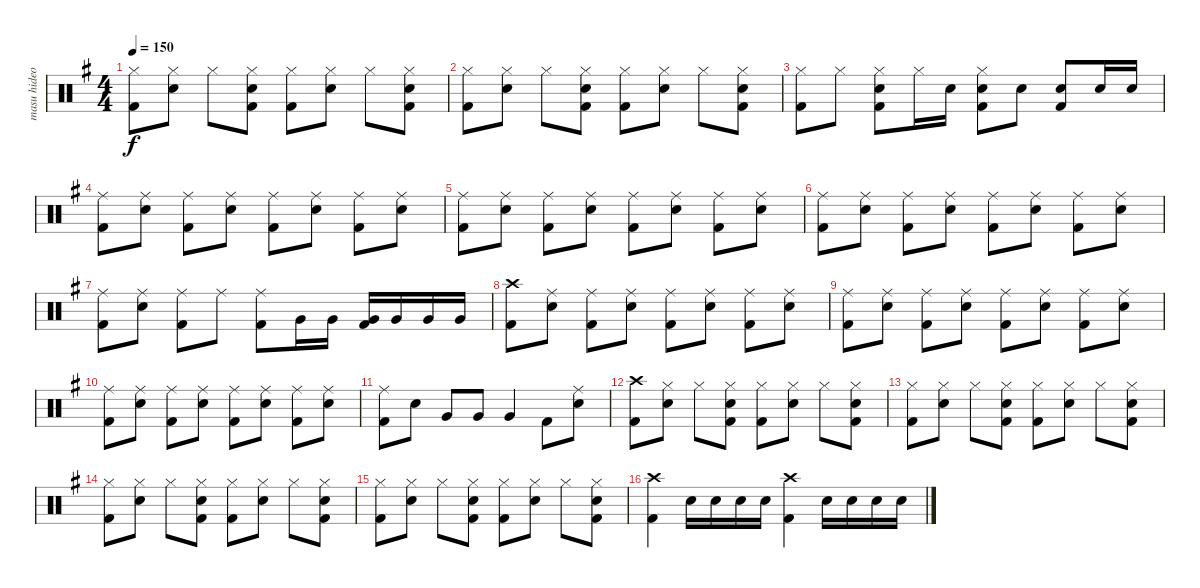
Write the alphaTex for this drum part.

\track ("masu hideo - drum" "masu hideo") {instrument percussion}
\staff {score}
\articulation defaults
\ts (4 4)
\tempo 150
\clef neutral
\ks g
("Hi-Hat (closed)" "Kick (hit) 2").8{dy f} ("Hi-Hat (closed)" "Electric Snare (hit)").8 "Hi-Hat (closed)".8 ("Hi-Hat (closed)" "Electric Snare (hit)" "Kick (hit) 2").8 ("Hi-Hat (closed)" "Kick (hit) 2").8 ("Hi-Hat (closed)" "Electric Snare (hit)").8 "Hi-Hat (closed)".8 ("Hi-Hat (closed)" "Electric Snare (hit)" "Kick (hit) 2").8 |
("Hi-Hat (closed)" "Kick (hit) 2").8 ("Hi-Hat (closed)" "Electric Snare (hit)").8 "Hi-Hat (closed)".8 ("Hi-Hat (closed)" "Electric Snare (hit)" "Kick (hit) 2").8 ("Hi-Hat (closed)" "Kick (hit) 2").8 ("Hi-Hat (closed)" "Electric Snare (hit)").8 "Hi-Hat (closed)".8 ("Hi-Hat (closed)" "Electric Snare (hit)" "Kick (hit) 2").8 |
("Hi-Hat (closed)" "Kick (hit) 2").8 "Hi-Hat (closed)".8 ("Hi-Hat (closed)" "Electric Snare (hit)" "Kick (hit) 2").8 "Hi-Hat (closed)".16 "Electric Snare (hit)".16 ("Hi-Hat (closed)" "Electric Snare (hit)" "Kick (hit) 2").8 "Electric Snare (hit)".8 ("Electric Snare (hit)" "Kick (hit) 2").8 "Electric Snare (hit)".16 "Electric Snare (hit)".16 |
("Ride (middle)" "Kick (hit) 2").8 ("Ride (middle)" "Electric Snare (hit)").8 ("Ride (middle)" "Kick (hit) 2").8 ("Ride (middle)" "Electric Snare (hit)").8 ("Ride (middle)" "Kick (hit) 2").8 ("Ride (middle)" "Electric Snare (hit)").8 ("Ride (middle)" "Kick (hit) 2").8 ("Ride (middle)" "Electric Snare (hit)").8 |
("Ride (middle)" "Kick (hit) 2").8 ("Ride (middle)" "Electric Snare (hit)").8 ("Ride (middle)" "Kick (hit) 2").8 ("Ride (middle)" "Electric Snare (hit)").8 ("Ride (middle)" "Kick (hit) 2").8 ("Ride (middle)" "Electric Snare (hit)").8 ("Ride (middle)" "Kick (hit) 2").8 ("Ride (middle)" "Electric Snare (hit)").8 |
("Ride (middle)" "Kick (hit) 2").8 ("Ride (middle)" "Electric Snare (hit)").8 ("Ride (middle)" "Kick (hit) 2").8 ("Ride (middle)" "Electric Snare (hit)").8 ("Ride (middle)" "Kick (hit) 2").8 ("Ride (middle)" "Electric Snare (hit)").8 ("Ride (middle)" "Kick (hit) 2").8 ("Ride (middle)" "Electric Snare (hit)").8 |
("Ride (middle)" "Kick (hit) 2").8 ("Ride (middle)" "Electric Snare (hit)").8 ("Ride (middle)" "Kick (hit) 2").8 "Ride (middle)".8 ("Ride (middle)" "Kick (hit) 2").8 "Very Low Tom (hit)".16 "Very Low Tom (hit)".16 ("Very Low Tom (hit)" "Kick (hit) 2").16 "Very Low Tom (hit)".16 "Very Low Tom (hit)".16 "Very Low Tom (hit)".16 |
("Crash high (hit)" "Kick (hit) 2").8 ("Ride (middle)" "Electric Snare (hit)").8 ("Ride (middle)" "Kick (hit) 2").8 ("Ride (middle)" "Electric Snare (hit)").8 ("Ride (middle)" "Kick (hit) 2").8 ("Ride (middle)" "Electric Snare (hit)").8 ("Ride (middle)" "Kick (hit) 2").8 ("Ride (middle)" "Electric Snare (hit)").8 |
("Ride (middle)" "Kick (hit) 2").8 ("Ride (middle)" "Electric Snare (hit)").8 ("Ride (middle)" "Kick (hit) 2").8 ("Ride (middle)" "Electric Snare (hit)").8 ("Ride (middle)" "Kick (hit) 2").8 ("Ride (middle)" "Electric Snare (hit)").8 ("Ride (middle)" "Kick (hit) 2").8 ("Ride (middle)" "Electric Snare (hit)").8 |
("Ride (middle)" "Kick (hit) 2").8 ("Ride (middle)" "Electric Snare (hit)").8 ("Ride (middle)" "Kick (hit) 2").8 ("Ride (middle)" "Electric Snare (hit)").8 ("Ride (middle)" "Kick (hit) 2").8 ("Ride (middle)" "Electric Snare (hit)").8 ("Ride (middle)" "Kick (hit) 2").8 ("Ride (middle)" "Electric Snare (hit)").8 |
("Ride (middle)" "Kick (hit) 2").8 "Electric Snare (hit)".8 "Very Low Tom (hit)".8 "Very Low Tom (hit)".8 "Very Low Tom (hit)".4 "Kick (hit) 2".8 ("Ride (middle)" "Electric Snare (hit)").8 |
("Crash high (hit)" "Kick (hit) 2").8 ("Hi-Hat (closed)" "Electric Snare (hit)").8 "Hi-Hat (closed)".8 ("Hi-Hat (closed)" "Electric Snare (hit)" "Kick (hit) 2").8 ("Hi-Hat (closed)" "Kick (hit) 2").8 ("Hi-Hat (closed)" "Electric Snare (hit)").8 "Hi-Hat (closed)".8 ("Hi-Hat (closed)" "Electric Snare (hit)" "Kick (hit) 2").8 |
("Hi-Hat (closed)" "Kick (hit) 2").8 ("Hi-Hat (closed)" "Electric Snare (hit)").8 "Hi-Hat (closed)".8 ("Hi-Hat (closed)" "Electric Snare (hit)" "Kick (hit) 2").8 ("Hi-Hat (closed)" "Kick (hit) 2").8 ("Hi-Hat (closed)" "Electric Snare (hit)").8 "Hi-Hat (closed)".8 ("Hi-Hat (closed)" "Electric Snare (hit)" "Kick (hit) 2").8 |
("Hi-Hat (closed)" "Kick (hit) 2").8 ("Hi-Hat (closed)" "Electric Snare (hit)").8 "Hi-Hat (closed)".8 ("Hi-Hat (closed)" "Electric Snare (hit)" "Kick (hit) 2").8 ("Hi-Hat (closed)" "Kick (hit) 2").8 ("Hi-Hat (closed)" "Electric Snare (hit)").8 "Hi-Hat (closed)".8 ("Hi-Hat (closed)" "Electric Snare (hit)" "Kick (hit) 2").8 |
("Hi-Hat (closed)" "Kick (hit) 2").8 ("Hi-Hat (closed)" "Electric Snare (hit)").8 "Hi-Hat (closed)".8 ("Hi-Hat (closed)" "Electric Snare (hit)" "Kick (hit) 2").8 ("Hi-Hat (closed)" "Kick (hit) 2").8 ("Hi-Hat (closed)" "Electric Snare (hit)").8 "Hi-Hat (closed)".8 ("Hi-Hat (closed)" "Electric Snare (hit)" "Kick (hit) 2").8 |
("Crash high (hit)" "Kick (hit) 2").4 "Electric Snare (hit)".16 "Electric Snare (hit)".16 "Electric Snare (hit)".16 "Electric Snare (hit)".16 ("Crash high (hit)" "Kick (hit) 2").4 "Electric Snare (hit)".16 "Electric Snare (hit)".16 "Electric Snare (hit)".16 "Electric Snare (hit)".16
